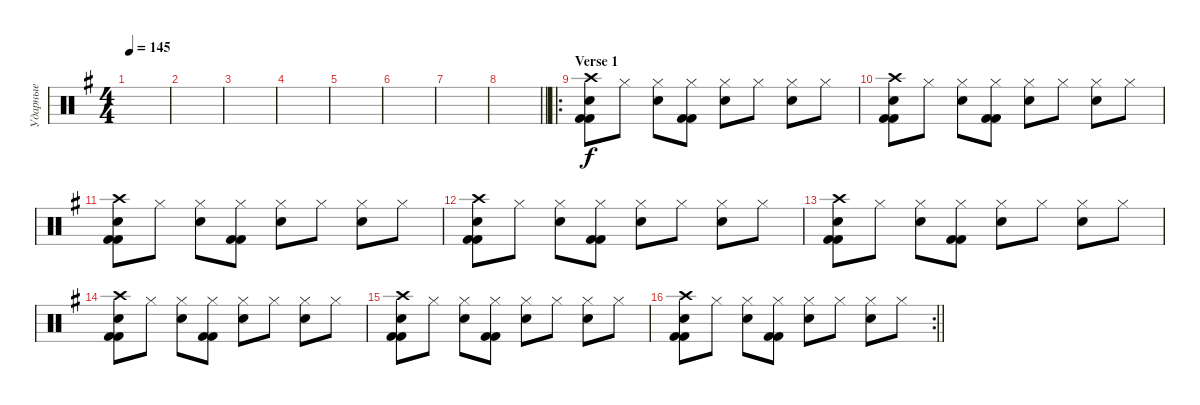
\track ("Ударные" "Ударные") {instrument percussion}
\staff {score}
\articulation defaults
\ts (4 4)
\tempo 145
\clef neutral
\ks g
|
|
|
|
|
|
|
\barLineRight lightlight
|
\ro
\section ("" "Verse 1")
("Electric Snare (hit)" "Crash high (hit)" "Kick (hit) 2" "Kick (hit) 2").8 "Hi-Hat (closed)".8 ("Electric Snare (hit)" "Hi-Hat (closed)").8 ("Hi-Hat (closed)" "Kick (hit) 2" "Kick (hit) 2").8 ("Electric Snare (hit)" "Hi-Hat (closed)").8 "Hi-Hat (closed)".8 ("Electric Snare (hit)" "Hi-Hat (closed)").8 "Hi-Hat (closed)".8 |
("Electric Snare (hit)" "Crash high (hit)" "Kick (hit) 2" "Kick (hit) 2").8 "Hi-Hat (closed)".8 ("Electric Snare (hit)" "Hi-Hat (closed)").8 ("Hi-Hat (closed)" "Kick (hit) 2" "Kick (hit) 2").8 ("Electric Snare (hit)" "Hi-Hat (closed)").8 "Hi-Hat (closed)".8 ("Electric Snare (hit)" "Hi-Hat (closed)").8 "Hi-Hat (closed)".8 |
("Electric Snare (hit)" "Crash high (hit)" "Kick (hit) 2" "Kick (hit) 2").8 "Hi-Hat (closed)".8 ("Electric Snare (hit)" "Hi-Hat (closed)").8 ("Hi-Hat (closed)" "Kick (hit) 2" "Kick (hit) 2").8 ("Electric Snare (hit)" "Hi-Hat (closed)").8 "Hi-Hat (closed)".8 ("Electric Snare (hit)" "Hi-Hat (closed)").8 "Hi-Hat (closed)".8 |
("Electric Snare (hit)" "Crash high (hit)" "Kick (hit) 2" "Kick (hit) 2").8 "Hi-Hat (closed)".8 ("Electric Snare (hit)" "Hi-Hat (closed)").8 ("Hi-Hat (closed)" "Kick (hit) 2" "Kick (hit) 2").8 ("Electric Snare (hit)" "Hi-Hat (closed)").8 "Hi-Hat (closed)".8 ("Electric Snare (hit)" "Hi-Hat (closed)").8 "Hi-Hat (closed)".8 |
("Electric Snare (hit)" "Crash high (hit)" "Kick (hit) 2" "Kick (hit) 2").8 "Hi-Hat (closed)".8 ("Electric Snare (hit)" "Hi-Hat (closed)").8 ("Hi-Hat (closed)" "Kick (hit) 2" "Kick (hit) 2").8 ("Electric Snare (hit)" "Hi-Hat (closed)").8 "Hi-Hat (closed)".8 ("Electric Snare (hit)" "Hi-Hat (closed)").8 "Hi-Hat (closed)".8 |
("Electric Snare (hit)" "Crash high (hit)" "Kick (hit) 2" "Kick (hit) 2").8 "Hi-Hat (closed)".8 ("Electric Snare (hit)" "Hi-Hat (closed)").8 ("Hi-Hat (closed)" "Kick (hit) 2" "Kick (hit) 2").8 ("Electric Snare (hit)" "Hi-Hat (closed)").8 "Hi-Hat (closed)".8 ("Electric Snare (hit)" "Hi-Hat (closed)").8 "Hi-Hat (closed)".8 |
("Electric Snare (hit)" "Crash high (hit)" "Kick (hit) 2" "Kick (hit) 2").8 "Hi-Hat (closed)".8 ("Electric Snare (hit)" "Hi-Hat (closed)").8 ("Hi-Hat (closed)" "Kick (hit) 2" "Kick (hit) 2").8 ("Electric Snare (hit)" "Hi-Hat (closed)").8 "Hi-Hat (closed)".8 ("Electric Snare (hit)" "Hi-Hat (closed)").8 "Hi-Hat (closed)".8 |
\rc 2
\barLineRight lightlight
("Electric Snare (hit)" "Crash high (hit)" "Kick (hit) 2" "Kick (hit) 2").8 "Hi-Hat (closed)".8 ("Electric Snare (hit)" "Hi-Hat (closed)").8 ("Hi-Hat (closed)" "Kick (hit) 2" "Kick (hit) 2").8 ("Electric Snare (hit)" "Hi-Hat (closed)").8 "Hi-Hat (closed)".8 ("Electric Snare (hit)" "Hi-Hat (closed)").8 "Hi-Hat (closed)".8
